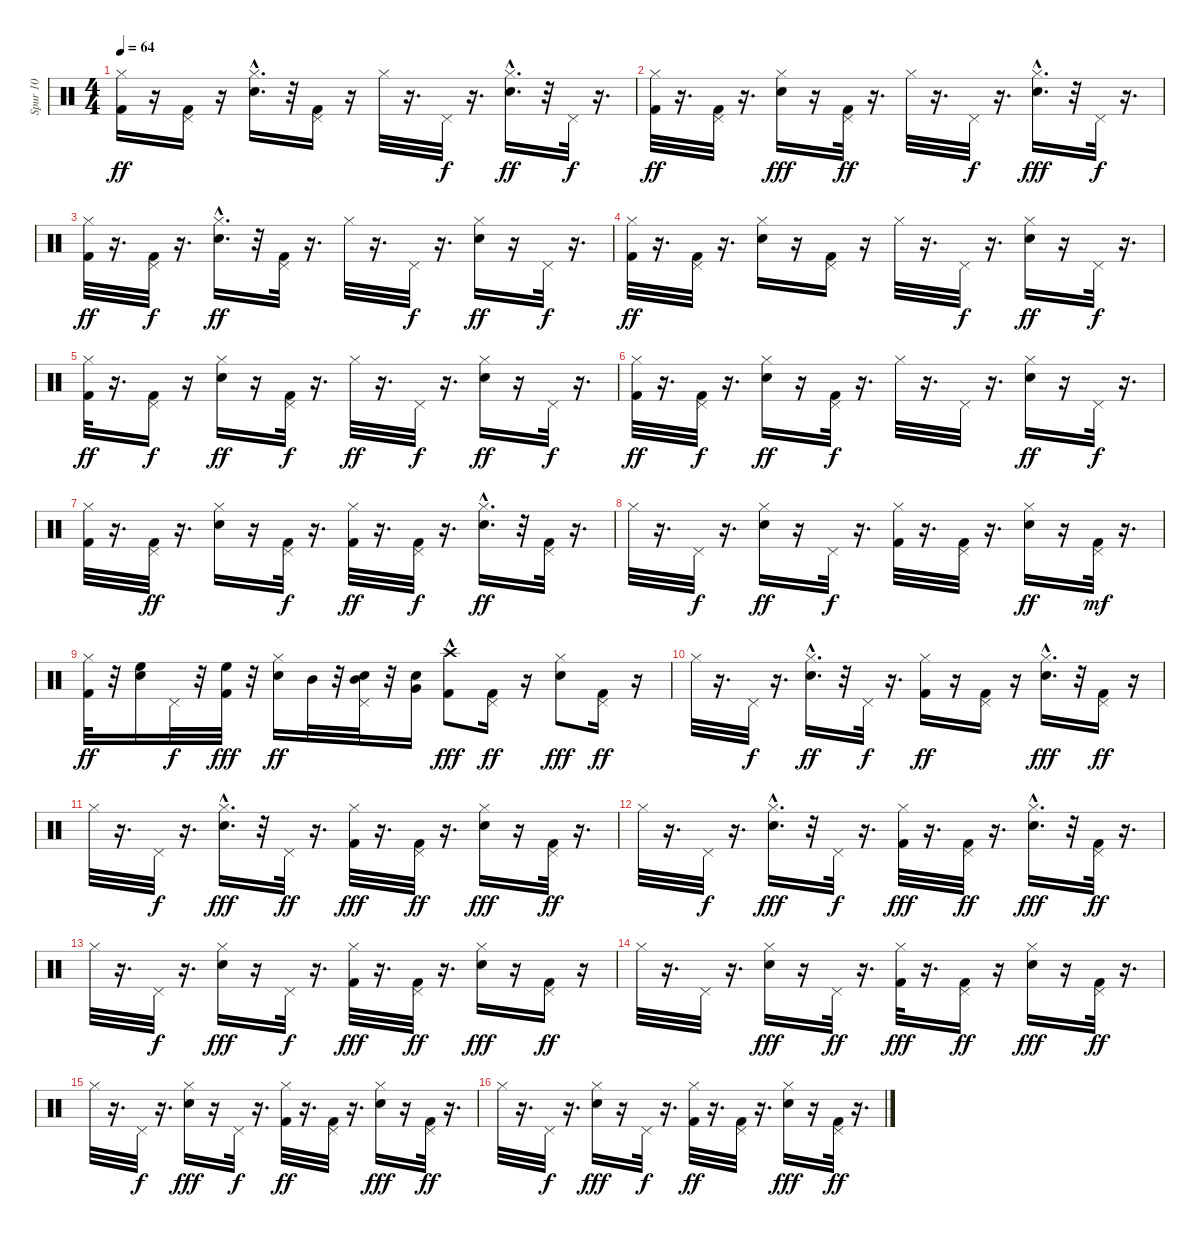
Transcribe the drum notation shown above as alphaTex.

\track ("Spur 10" "Spur 10") {instrument percussion}
\staff {score}
\articulation defaults
\ts (4 4)
\tempo 64
\clef neutral
\ks c
("Hi-Hat (closed)" "Kick (hit) 2").16{dy ff} r.16 ("Pedal Hi-Hat (hit)" "Kick (hit) 2").16 r.16 ("Hi-Hat (closed)" "Snare (hit) 2"{hac}).16{d} r.32 ("Pedal Hi-Hat (hit)" "Kick (hit) 2").16 r.16 "Hi-Hat (closed)".32 r.16{d} "Pedal Hi-Hat (hit)".32{dy f} r.16{d} ("Hi-Hat (closed)" "Snare (hit) 2"{hac}).16{d dy ff} r.32 "Pedal Hi-Hat (hit)".32{dy f} r.16{d} |
("Hi-Hat (closed)" "Kick (hit) 2").32{dy ff} r.16{d} ("Pedal Hi-Hat (hit)" "Kick (hit) 2").32 r.16{d} ("Hi-Hat (closed)" "Snare (hit) 2").16{dy fff} r.16 ("Pedal Hi-Hat (hit)" "Kick (hit) 2").32{dy ff} r.16{d} "Hi-Hat (closed)".32 r.16{d} "Pedal Hi-Hat (hit)".32{dy f} r.16{d} ("Hi-Hat (closed)" "Snare (hit) 2"{hac}).16{d dy fff} r.32 "Pedal Hi-Hat (hit)".32{dy f} r.16{d} |
("Hi-Hat (closed)" "Kick (hit) 2").32{dy ff} r.16{d} ("Pedal Hi-Hat (hit)" "Kick (hit) 2").32{dy f} r.16{d} ("Hi-Hat (closed)" "Snare (hit) 2"{hac}).16{d dy ff} r.32 ("Pedal Hi-Hat (hit)" "Kick (hit) 2").32 r.16{d} "Hi-Hat (closed)".32 r.16{d} "Pedal Hi-Hat (hit)".32{dy f} r.16{d} ("Hi-Hat (closed)" "Snare (hit) 2").16{dy ff} r.16 "Pedal Hi-Hat (hit)".32{dy f} r.16{d} |
("Hi-Hat (closed)" "Kick (hit) 2").32{dy ff} r.16{d} ("Pedal Hi-Hat (hit)" "Kick (hit) 2").32 r.16{d} ("Hi-Hat (closed)" "Snare (hit) 2").16 r.16 ("Pedal Hi-Hat (hit)" "Kick (hit) 2").16 r.16 "Hi-Hat (closed)".32 r.16{d} "Pedal Hi-Hat (hit)".32{dy f} r.16{d} ("Hi-Hat (closed)" "Snare (hit) 2").16{dy ff} r.16 "Pedal Hi-Hat (hit)".32{dy f} r.16{d} |
("Hi-Hat (closed)" "Kick (hit) 2").32{dy ff} r.16{d} ("Pedal Hi-Hat (hit)" "Kick (hit) 2").16{dy f} r.16 ("Hi-Hat (closed)" "Snare (hit) 2").16{dy ff} r.16 ("Pedal Hi-Hat (hit)" "Kick (hit) 2").32{dy f} r.16{d} "Hi-Hat (closed)".32{dy ff} r.16{d} "Pedal Hi-Hat (hit)".32{dy f} r.16{d} ("Hi-Hat (closed)" "Snare (hit) 2").16{dy ff} r.16 "Pedal Hi-Hat (hit)".32{dy f} r.16{d} |
("Hi-Hat (closed)" "Kick (hit) 2").32{dy ff} r.16{d} ("Pedal Hi-Hat (hit)" "Kick (hit) 2").32{dy f} r.16{d} ("Hi-Hat (closed)" "Snare (hit) 2").16{dy ff} r.16 ("Pedal Hi-Hat (hit)" "Kick (hit) 2").32{dy f} r.16{d} "Hi-Hat (closed)".32 r.16{d} "Pedal Hi-Hat (hit)".32 r.16{d} ("Hi-Hat (closed)" "Snare (hit) 2").16{dy ff} r.16 "Pedal Hi-Hat (hit)".32{dy f} r.16{d} |
("Hi-Hat (closed)" "Kick (hit) 2").32 r.16{d} ("Pedal Hi-Hat (hit)" "Kick (hit) 2").32{dy ff} r.16{d} ("Hi-Hat (closed)" "Snare (hit) 2").16 r.16 ("Pedal Hi-Hat (hit)" "Kick (hit) 2").32{dy f} r.16{d} ("Hi-Hat (closed)" "Kick (hit) 2").32{dy ff} r.16{d} ("Pedal Hi-Hat (hit)" "Kick (hit) 2").32{dy f} r.16{d} ("Hi-Hat (closed)" "Snare (hit) 2"{hac}).16{d dy ff} r.32 ("Pedal Hi-Hat (hit)" "Kick (hit) 2").32 r.16{d} |
"Hi-Hat (closed)".32 r.16{d} "Pedal Hi-Hat (hit)".32{dy f} r.16{d} ("Hi-Hat (closed)" "Snare (hit) 2").16{dy ff} r.16 "Pedal Hi-Hat (hit)".32{dy f} r.16{d} ("Hi-Hat (closed)" "Kick (hit) 2").32 r.16{d} ("Pedal Hi-Hat (hit)" "Kick (hit) 2").32 r.16{d} ("Hi-Hat (closed)" "Snare (hit) 2").16{dy ff} r.16 ("Pedal Hi-Hat (hit)" "Kick (hit) 2").32{dy mf} r.16{d} |
("Hi-Hat (closed)" "Kick (hit) 2").32{dy ff} r.32 ("High Floor Tom (hit)" "Snare (hit) 2").16 "Pedal Hi-Hat (hit)".32{dy f} r.32 ("High Floor Tom (hit)" "Kick (hit) 2").32{dy fff} r.32 ("Hi-Hat (closed)" "Snare (hit) 2").16{dy ff} "Mid Tom (hit)".32 r.32 ("Mid Tom (hit)" "Pedal Hi-Hat (hit)" "Snare (hit) 2").32 r.32 ("Very Low Tom (hit)" "Snare (hit) 2").16 ("Crash high (hit)"{hac} "Kick (hit) 2").8{dy fff} ("Pedal Hi-Hat (hit)" "Kick (hit) 2").16{dy ff} r.16 ("Hi-Hat (closed)" "Snare (hit) 2").8{dy fff} ("Pedal Hi-Hat (hit)" "Kick (hit) 2").16{dy ff} r.16 |
"Hi-Hat (closed)".32 r.16{d} "Pedal Hi-Hat (hit)".32{dy f} r.16{d} ("Hi-Hat (closed)" "Snare (hit) 2"{hac}).16{d dy ff} r.32 "Pedal Hi-Hat (hit)".32{dy f} r.16{d} ("Hi-Hat (closed)" "Kick (hit) 2").16{dy ff} r.16 ("Pedal Hi-Hat (hit)" "Kick (hit) 2").16 r.16 ("Hi-Hat (closed)" "Snare (hit) 2"{hac}).16{d dy fff} r.32 ("Pedal Hi-Hat (hit)" "Kick (hit) 2").16{dy ff} r.16 |
"Hi-Hat (closed)".32 r.16{d} "Pedal Hi-Hat (hit)".32{dy f} r.16{d} ("Hi-Hat (closed)" "Snare (hit) 2"{hac}).16{d dy fff} r.32 "Pedal Hi-Hat (hit)".32{dy ff} r.16{d} ("Hi-Hat (closed)" "Kick (hit) 2").32{dy fff} r.16{d} ("Pedal Hi-Hat (hit)" "Kick (hit) 2").32{dy ff} r.16{d} ("Hi-Hat (closed)" "Snare (hit) 2").16{dy fff} r.16 ("Pedal Hi-Hat (hit)" "Kick (hit) 2").32{dy ff} r.16{d} |
"Hi-Hat (closed)".32 r.16{d} "Pedal Hi-Hat (hit)".32{dy f} r.16{d} ("Hi-Hat (closed)" "Snare (hit) 2"{hac}).16{d dy fff} r.32 "Pedal Hi-Hat (hit)".32{dy f} r.16{d} ("Hi-Hat (closed)" "Kick (hit) 2").32{dy fff} r.16{d} ("Pedal Hi-Hat (hit)" "Kick (hit) 2").32{dy ff} r.16{d} ("Hi-Hat (closed)" "Snare (hit) 2"{hac}).16{d dy fff} r.32 ("Pedal Hi-Hat (hit)" "Kick (hit) 2").32{dy ff} r.16{d} |
"Hi-Hat (closed)".32 r.16{d} "Pedal Hi-Hat (hit)".32{dy f} r.16{d} ("Hi-Hat (closed)" "Snare (hit) 2").16{dy fff} r.16 "Pedal Hi-Hat (hit)".32{dy f} r.16{d} ("Hi-Hat (closed)" "Kick (hit) 2").32{dy fff} r.16{d} ("Pedal Hi-Hat (hit)" "Kick (hit) 2").32{dy ff} r.16{d} ("Hi-Hat (closed)" "Snare (hit) 2").16{dy fff} r.16 ("Pedal Hi-Hat (hit)" "Kick (hit) 2").16{dy ff} r.16 |
"Hi-Hat (closed)".32 r.16{d} "Pedal Hi-Hat (hit)".32 r.16{d} ("Hi-Hat (closed)" "Snare (hit) 2").16{dy fff} r.16 "Pedal Hi-Hat (hit)".32{dy ff} r.16{d} ("Hi-Hat (closed)" "Kick (hit) 2").32{dy fff} r.16{d} ("Pedal Hi-Hat (hit)" "Kick (hit) 2").16{dy ff} r.16 ("Hi-Hat (closed)" "Snare (hit) 2").16{dy fff} r.16 ("Pedal Hi-Hat (hit)" "Kick (hit) 2").32{dy ff} r.16{d} |
"Hi-Hat (closed)".32 r.16{d} "Pedal Hi-Hat (hit)".32{dy f} r.16{d} ("Hi-Hat (closed)" "Snare (hit) 2").16{dy fff} r.16 "Pedal Hi-Hat (hit)".32{dy f} r.16{d} ("Hi-Hat (closed)" "Kick (hit) 2").32{dy ff} r.16{d} ("Pedal Hi-Hat (hit)" "Kick (hit) 2").32 r.16{d} ("Hi-Hat (closed)" "Snare (hit) 2").16{dy fff} r.16 ("Pedal Hi-Hat (hit)" "Kick (hit) 2").32{dy ff} r.16{d} |
"Hi-Hat (closed)".32 r.16{d} "Pedal Hi-Hat (hit)".32{dy f} r.16{d} ("Hi-Hat (closed)" "Snare (hit) 2").16{dy fff} r.16 "Pedal Hi-Hat (hit)".32{dy f} r.16{d} ("Hi-Hat (closed)" "Kick (hit) 2").32{dy ff} r.16{d} ("Pedal Hi-Hat (hit)" "Kick (hit) 2").32 r.16{d} ("Hi-Hat (closed)" "Snare (hit) 2").16{dy fff} r.16 ("Pedal Hi-Hat (hit)" "Kick (hit) 2").32{dy ff} r.16{d}
